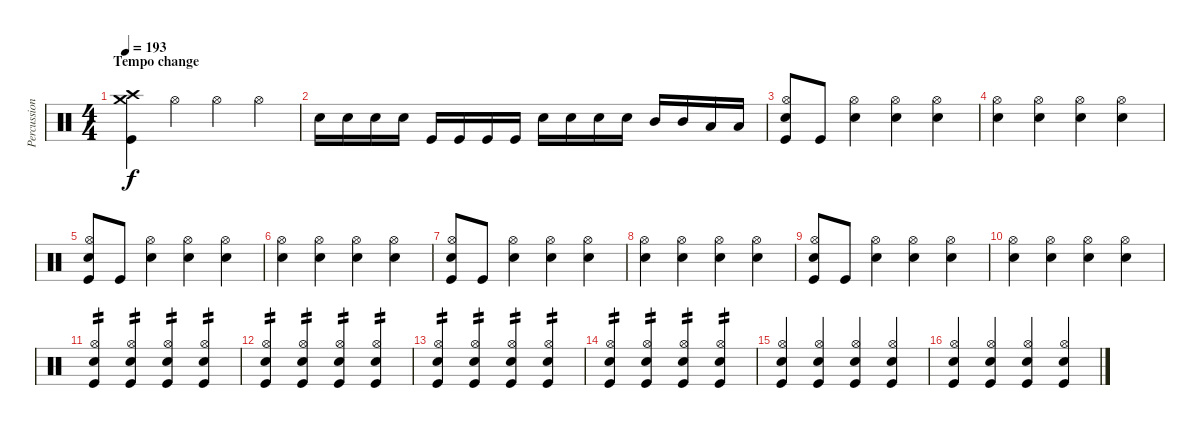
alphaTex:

\track ("Percussions" "Percussion") {instrument percussion}
\staff {score}
\articulation defaults
\ts (4 4)
\section ("" "Tempo change")
\tempo 193
\clef neutral
\ks c
("Crash high (hit)" "Crash medium (hit)" "Kick (hit)").4{dy f} "Hi-Hat (open)".4 "Hi-Hat (open)".4 "Hi-Hat (open)".4 |
"Electric Snare (hit)".16 "Electric Snare (hit)".16 "Electric Snare (hit)".16 "Electric Snare (hit)".16 "Kick (hit)".16 "Kick (hit)".16 "Kick (hit)".16 "Kick (hit)".16 "Electric Snare (hit)".16 "Electric Snare (hit)".16 "Electric Snare (hit)".16 "Electric Snare (hit)".16 "Mid Tom (hit)".16 "Mid Tom (hit)".16 "Low Tom (hit)".16 "Low Tom (hit)".16 |
("Hi-Hat (open)" "Electric Snare (hit)" "Kick (hit)").8 "Kick (hit)".8 ("Hi-Hat (open)" "Electric Snare (hit)").4 ("Hi-Hat (open)" "Electric Snare (hit)").4 ("Hi-Hat (open)" "Electric Snare (hit)").4 |
("Hi-Hat (open)" "Electric Snare (hit)").4 ("Hi-Hat (open)" "Electric Snare (hit)").4 ("Hi-Hat (open)" "Electric Snare (hit)").4 ("Hi-Hat (open)" "Electric Snare (hit)").4 |
("Hi-Hat (open)" "Electric Snare (hit)" "Kick (hit)").8 "Kick (hit)".8 ("Hi-Hat (open)" "Electric Snare (hit)").4 ("Hi-Hat (open)" "Electric Snare (hit)").4 ("Hi-Hat (open)" "Electric Snare (hit)").4 |
("Hi-Hat (open)" "Electric Snare (hit)").4 ("Hi-Hat (open)" "Electric Snare (hit)").4 ("Hi-Hat (open)" "Electric Snare (hit)").4 ("Hi-Hat (open)" "Electric Snare (hit)").4 |
("Hi-Hat (open)" "Electric Snare (hit)" "Kick (hit)").8 "Kick (hit)".8 ("Hi-Hat (open)" "Electric Snare (hit)").4 ("Hi-Hat (open)" "Electric Snare (hit)").4 ("Hi-Hat (open)" "Electric Snare (hit)").4 |
("Hi-Hat (open)" "Electric Snare (hit)").4 ("Hi-Hat (open)" "Electric Snare (hit)").4 ("Hi-Hat (open)" "Electric Snare (hit)").4 ("Hi-Hat (open)" "Electric Snare (hit)").4 |
("Hi-Hat (open)" "Electric Snare (hit)" "Kick (hit)").8 "Kick (hit)".8 ("Hi-Hat (open)" "Electric Snare (hit)").4 ("Hi-Hat (open)" "Electric Snare (hit)").4 ("Hi-Hat (open)" "Electric Snare (hit)").4 |
("Hi-Hat (open)" "Electric Snare (hit)").4 ("Hi-Hat (open)" "Electric Snare (hit)").4 ("Hi-Hat (open)" "Electric Snare (hit)").4 ("Hi-Hat (open)" "Electric Snare (hit)").4 |
("Hi-Hat (open)" "Electric Snare (hit)" "Kick (hit)").4{tp 2} ("Hi-Hat (open)" "Electric Snare (hit)" "Kick (hit)").4{tp 2} ("Hi-Hat (open)" "Electric Snare (hit)" "Kick (hit)").4{tp 2} ("Hi-Hat (open)" "Electric Snare (hit)" "Kick (hit)").4{tp 2} |
("Hi-Hat (open)" "Electric Snare (hit)" "Kick (hit)").4{tp 2} ("Hi-Hat (open)" "Electric Snare (hit)" "Kick (hit)").4{tp 2} ("Hi-Hat (open)" "Electric Snare (hit)" "Kick (hit)").4{tp 2} ("Hi-Hat (open)" "Electric Snare (hit)" "Kick (hit)").4{tp 2} |
("Hi-Hat (open)" "Electric Snare (hit)" "Kick (hit)").4{tp 2} ("Hi-Hat (open)" "Electric Snare (hit)" "Kick (hit)").4{tp 2} ("Hi-Hat (open)" "Electric Snare (hit)" "Kick (hit)").4{tp 2} ("Hi-Hat (open)" "Electric Snare (hit)" "Kick (hit)").4{tp 2} |
("Hi-Hat (open)" "Electric Snare (hit)" "Kick (hit)").4{tp 2} ("Hi-Hat (open)" "Electric Snare (hit)" "Kick (hit)").4{tp 2} ("Hi-Hat (open)" "Electric Snare (hit)" "Kick (hit)").4{tp 2} ("Hi-Hat (open)" "Electric Snare (hit)" "Kick (hit)").4{tp 2} |
("Hi-Hat (open)" "Electric Snare (hit)" "Kick (hit)").4 ("Hi-Hat (open)" "Electric Snare (hit)" "Kick (hit)").4 ("Hi-Hat (open)" "Electric Snare (hit)" "Kick (hit)").4 ("Hi-Hat (open)" "Electric Snare (hit)" "Kick (hit)").4 |
("Hi-Hat (open)" "Electric Snare (hit)" "Kick (hit)").4 ("Hi-Hat (open)" "Electric Snare (hit)" "Kick (hit)").4 ("Hi-Hat (open)" "Electric Snare (hit)" "Kick (hit)").4 ("Hi-Hat (open)" "Electric Snare (hit)" "Kick (hit)").4
